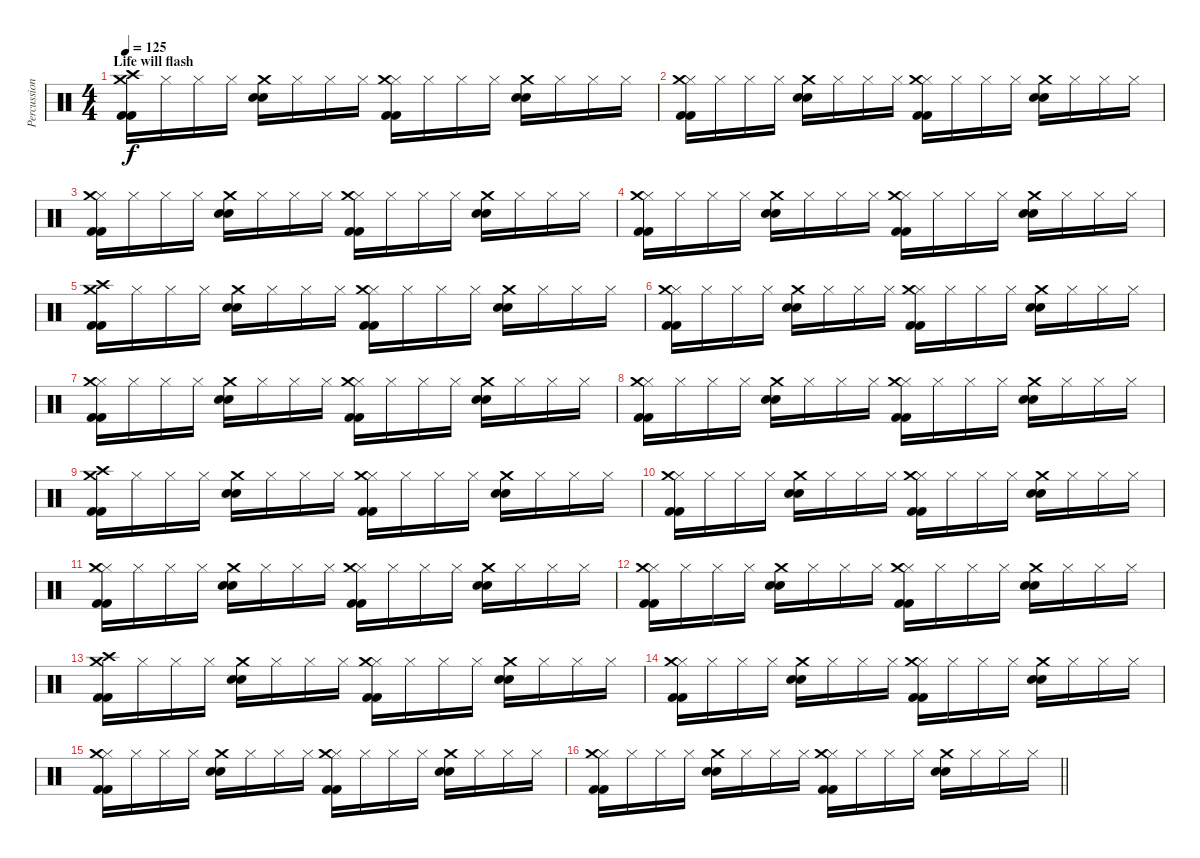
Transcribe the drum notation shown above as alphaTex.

\track ("Percussion" "Percussion") {instrument percussion}
\staff {score}
\articulation defaults
\ts (4 4)
\section ("" "Life will flash")
\tempo 125
\clef neutral
\ks c
("Crash high (hit)" "Crash medium (hit)" "Kick (hit) 2" "Kick (hit) 2").16{dy f} "Hi-Hat (closed)".16 "Hi-Hat (closed)".16 "Hi-Hat (closed)".16 ("Crash medium (hit)" "Electric Snare (hit)" "Electric Snare (hit)").16 "Hi-Hat (closed)".16 "Hi-Hat (closed)".16 "Hi-Hat (closed)".16 ("Hi-Hat (closed)" "Crash medium (hit)" "Kick (hit) 2" "Kick (hit) 2").16 "Hi-Hat (closed)".16 "Hi-Hat (closed)".16 "Hi-Hat (closed)".16 ("Crash medium (hit)" "Electric Snare (hit)" "Electric Snare (hit)").16 "Hi-Hat (closed)".16 "Hi-Hat (closed)".16 "Hi-Hat (closed)".16 |
("Hi-Hat (closed)" "Crash medium (hit)" "Kick (hit) 2" "Kick (hit) 2").16 "Hi-Hat (closed)".16 "Hi-Hat (closed)".16 "Hi-Hat (closed)".16 ("Crash medium (hit)" "Electric Snare (hit)" "Electric Snare (hit)").16 "Hi-Hat (closed)".16 "Hi-Hat (closed)".16 "Hi-Hat (closed)".16 ("Hi-Hat (closed)" "Crash medium (hit)" "Kick (hit) 2" "Kick (hit) 2").16 "Hi-Hat (closed)".16 "Hi-Hat (closed)".16 "Hi-Hat (closed)".16 ("Crash medium (hit)" "Electric Snare (hit)" "Electric Snare (hit)").16 "Hi-Hat (closed)".16 "Hi-Hat (closed)".16 "Hi-Hat (closed)".16 |
("Hi-Hat (closed)" "Crash medium (hit)" "Kick (hit) 2" "Kick (hit) 2").16 "Hi-Hat (closed)".16 "Hi-Hat (closed)".16 "Hi-Hat (closed)".16 ("Crash medium (hit)" "Electric Snare (hit)" "Electric Snare (hit)").16 "Hi-Hat (closed)".16 "Hi-Hat (closed)".16 "Hi-Hat (closed)".16 ("Hi-Hat (closed)" "Crash medium (hit)" "Kick (hit) 2" "Kick (hit) 2").16 "Hi-Hat (closed)".16 "Hi-Hat (closed)".16 "Hi-Hat (closed)".16 ("Crash medium (hit)" "Electric Snare (hit)" "Electric Snare (hit)").16 "Hi-Hat (closed)".16 "Hi-Hat (closed)".16 "Hi-Hat (closed)".16 |
("Hi-Hat (closed)" "Crash medium (hit)" "Kick (hit) 2" "Kick (hit) 2").16 "Hi-Hat (closed)".16 "Hi-Hat (closed)".16 "Hi-Hat (closed)".16 ("Crash medium (hit)" "Electric Snare (hit)" "Electric Snare (hit)").16 "Hi-Hat (closed)".16 "Hi-Hat (closed)".16 "Hi-Hat (closed)".16 ("Hi-Hat (closed)" "Crash medium (hit)" "Kick (hit) 2" "Kick (hit) 2").16 "Hi-Hat (closed)".16 "Hi-Hat (closed)".16 "Hi-Hat (closed)".16 ("Crash medium (hit)" "Electric Snare (hit)" "Electric Snare (hit)").16 "Hi-Hat (closed)".16 "Hi-Hat (closed)".16 "Hi-Hat (closed)".16 |
("Crash high (hit)" "Crash medium (hit)" "Kick (hit) 2" "Kick (hit) 2").16 "Hi-Hat (closed)".16 "Hi-Hat (closed)".16 "Hi-Hat (closed)".16 ("Crash medium (hit)" "Electric Snare (hit)" "Electric Snare (hit)").16 "Hi-Hat (closed)".16 "Hi-Hat (closed)".16 "Hi-Hat (closed)".16 ("Hi-Hat (closed)" "Crash medium (hit)" "Kick (hit) 2" "Kick (hit) 2").16 "Hi-Hat (closed)".16 "Hi-Hat (closed)".16 "Hi-Hat (closed)".16 ("Crash medium (hit)" "Electric Snare (hit)" "Electric Snare (hit)").16 "Hi-Hat (closed)".16 "Hi-Hat (closed)".16 "Hi-Hat (closed)".16 |
("Hi-Hat (closed)" "Crash medium (hit)" "Kick (hit) 2" "Kick (hit) 2").16 "Hi-Hat (closed)".16 "Hi-Hat (closed)".16 "Hi-Hat (closed)".16 ("Crash medium (hit)" "Electric Snare (hit)" "Electric Snare (hit)").16 "Hi-Hat (closed)".16 "Hi-Hat (closed)".16 "Hi-Hat (closed)".16 ("Hi-Hat (closed)" "Crash medium (hit)" "Kick (hit) 2" "Kick (hit) 2").16 "Hi-Hat (closed)".16 "Hi-Hat (closed)".16 "Hi-Hat (closed)".16 ("Crash medium (hit)" "Electric Snare (hit)" "Electric Snare (hit)").16 "Hi-Hat (closed)".16 "Hi-Hat (closed)".16 "Hi-Hat (closed)".16 |
("Hi-Hat (closed)" "Crash medium (hit)" "Kick (hit) 2" "Kick (hit) 2").16 "Hi-Hat (closed)".16 "Hi-Hat (closed)".16 "Hi-Hat (closed)".16 ("Crash medium (hit)" "Electric Snare (hit)" "Electric Snare (hit)").16 "Hi-Hat (closed)".16 "Hi-Hat (closed)".16 "Hi-Hat (closed)".16 ("Hi-Hat (closed)" "Crash medium (hit)" "Kick (hit) 2" "Kick (hit) 2").16 "Hi-Hat (closed)".16 "Hi-Hat (closed)".16 "Hi-Hat (closed)".16 ("Crash medium (hit)" "Electric Snare (hit)" "Electric Snare (hit)").16 "Hi-Hat (closed)".16 "Hi-Hat (closed)".16 "Hi-Hat (closed)".16 |
("Hi-Hat (closed)" "Crash medium (hit)" "Kick (hit) 2" "Kick (hit) 2").16 "Hi-Hat (closed)".16 "Hi-Hat (closed)".16 "Hi-Hat (closed)".16 ("Crash medium (hit)" "Electric Snare (hit)" "Electric Snare (hit)").16 "Hi-Hat (closed)".16 "Hi-Hat (closed)".16 "Hi-Hat (closed)".16 ("Hi-Hat (closed)" "Crash medium (hit)" "Kick (hit) 2" "Kick (hit) 2").16 "Hi-Hat (closed)".16 "Hi-Hat (closed)".16 "Hi-Hat (closed)".16 ("Crash medium (hit)" "Electric Snare (hit)" "Electric Snare (hit)").16 "Hi-Hat (closed)".16 "Hi-Hat (closed)".16 "Hi-Hat (closed)".16 |
("Crash high (hit)" "Crash medium (hit)" "Kick (hit) 2" "Kick (hit) 2").16 "Hi-Hat (closed)".16 "Hi-Hat (closed)".16 "Hi-Hat (closed)".16 ("Crash medium (hit)" "Electric Snare (hit)" "Electric Snare (hit)").16 "Hi-Hat (closed)".16 "Hi-Hat (closed)".16 "Hi-Hat (closed)".16 ("Hi-Hat (closed)" "Crash medium (hit)" "Kick (hit) 2" "Kick (hit) 2").16 "Hi-Hat (closed)".16 "Hi-Hat (closed)".16 "Hi-Hat (closed)".16 ("Crash medium (hit)" "Electric Snare (hit)" "Electric Snare (hit)").16 "Hi-Hat (closed)".16 "Hi-Hat (closed)".16 "Hi-Hat (closed)".16 |
("Hi-Hat (closed)" "Crash medium (hit)" "Kick (hit) 2" "Kick (hit) 2").16 "Hi-Hat (closed)".16 "Hi-Hat (closed)".16 "Hi-Hat (closed)".16 ("Crash medium (hit)" "Electric Snare (hit)" "Electric Snare (hit)").16 "Hi-Hat (closed)".16 "Hi-Hat (closed)".16 "Hi-Hat (closed)".16 ("Hi-Hat (closed)" "Crash medium (hit)" "Kick (hit) 2" "Kick (hit) 2").16 "Hi-Hat (closed)".16 "Hi-Hat (closed)".16 "Hi-Hat (closed)".16 ("Crash medium (hit)" "Electric Snare (hit)" "Electric Snare (hit)").16 "Hi-Hat (closed)".16 "Hi-Hat (closed)".16 "Hi-Hat (closed)".16 |
("Hi-Hat (closed)" "Crash medium (hit)" "Kick (hit) 2" "Kick (hit) 2").16 "Hi-Hat (closed)".16 "Hi-Hat (closed)".16 "Hi-Hat (closed)".16 ("Crash medium (hit)" "Electric Snare (hit)" "Electric Snare (hit)").16 "Hi-Hat (closed)".16 "Hi-Hat (closed)".16 "Hi-Hat (closed)".16 ("Hi-Hat (closed)" "Crash medium (hit)" "Kick (hit) 2" "Kick (hit) 2").16 "Hi-Hat (closed)".16 "Hi-Hat (closed)".16 "Hi-Hat (closed)".16 ("Crash medium (hit)" "Electric Snare (hit)" "Electric Snare (hit)").16 "Hi-Hat (closed)".16 "Hi-Hat (closed)".16 "Hi-Hat (closed)".16 |
("Hi-Hat (closed)" "Crash medium (hit)" "Kick (hit) 2" "Kick (hit) 2").16 "Hi-Hat (closed)".16 "Hi-Hat (closed)".16 "Hi-Hat (closed)".16 ("Crash medium (hit)" "Electric Snare (hit)" "Electric Snare (hit)").16 "Hi-Hat (closed)".16 "Hi-Hat (closed)".16 "Hi-Hat (closed)".16 ("Hi-Hat (closed)" "Crash medium (hit)" "Kick (hit) 2" "Kick (hit) 2").16 "Hi-Hat (closed)".16 "Hi-Hat (closed)".16 "Hi-Hat (closed)".16 ("Crash medium (hit)" "Electric Snare (hit)" "Electric Snare (hit)").16 "Hi-Hat (closed)".16 "Hi-Hat (closed)".16 "Hi-Hat (closed)".16 |
("Crash high (hit)" "Crash medium (hit)" "Kick (hit) 2" "Kick (hit) 2").16 "Hi-Hat (closed)".16 "Hi-Hat (closed)".16 "Hi-Hat (closed)".16 ("Crash medium (hit)" "Electric Snare (hit)" "Electric Snare (hit)").16 "Hi-Hat (closed)".16 "Hi-Hat (closed)".16 "Hi-Hat (closed)".16 ("Hi-Hat (closed)" "Crash medium (hit)" "Kick (hit) 2" "Kick (hit) 2").16 "Hi-Hat (closed)".16 "Hi-Hat (closed)".16 "Hi-Hat (closed)".16 ("Crash medium (hit)" "Electric Snare (hit)" "Electric Snare (hit)").16 "Hi-Hat (closed)".16 "Hi-Hat (closed)".16 "Hi-Hat (closed)".16 |
("Hi-Hat (closed)" "Crash medium (hit)" "Kick (hit) 2" "Kick (hit) 2").16 "Hi-Hat (closed)".16 "Hi-Hat (closed)".16 "Hi-Hat (closed)".16 ("Crash medium (hit)" "Electric Snare (hit)" "Electric Snare (hit)").16 "Hi-Hat (closed)".16 "Hi-Hat (closed)".16 "Hi-Hat (closed)".16 ("Hi-Hat (closed)" "Crash medium (hit)" "Kick (hit) 2" "Kick (hit) 2").16 "Hi-Hat (closed)".16 "Hi-Hat (closed)".16 "Hi-Hat (closed)".16 ("Crash medium (hit)" "Electric Snare (hit)" "Electric Snare (hit)").16 "Hi-Hat (closed)".16 "Hi-Hat (closed)".16 "Hi-Hat (closed)".16 |
("Hi-Hat (closed)" "Crash medium (hit)" "Kick (hit) 2" "Kick (hit) 2").16 "Hi-Hat (closed)".16 "Hi-Hat (closed)".16 "Hi-Hat (closed)".16 ("Crash medium (hit)" "Electric Snare (hit)" "Electric Snare (hit)").16 "Hi-Hat (closed)".16 "Hi-Hat (closed)".16 "Hi-Hat (closed)".16 ("Hi-Hat (closed)" "Crash medium (hit)" "Kick (hit) 2" "Kick (hit) 2").16 "Hi-Hat (closed)".16 "Hi-Hat (closed)".16 "Hi-Hat (closed)".16 ("Crash medium (hit)" "Electric Snare (hit)" "Electric Snare (hit)").16 "Hi-Hat (closed)".16 "Hi-Hat (closed)".16 "Hi-Hat (closed)".16 |
\barLineRight lightlight
("Hi-Hat (closed)" "Crash medium (hit)" "Kick (hit) 2" "Kick (hit) 2").16 "Hi-Hat (closed)".16 "Hi-Hat (closed)".16 "Hi-Hat (closed)".16 ("Crash medium (hit)" "Electric Snare (hit)" "Electric Snare (hit)").16 "Hi-Hat (closed)".16 "Hi-Hat (closed)".16 "Hi-Hat (closed)".16 ("Hi-Hat (closed)" "Crash medium (hit)" "Kick (hit) 2" "Kick (hit) 2").16 "Hi-Hat (closed)".16 "Hi-Hat (closed)".16 "Hi-Hat (closed)".16 ("Crash medium (hit)" "Electric Snare (hit)" "Electric Snare (hit)").16 "Hi-Hat (closed)".16 "Hi-Hat (closed)".16 "Hi-Hat (closed)".16
